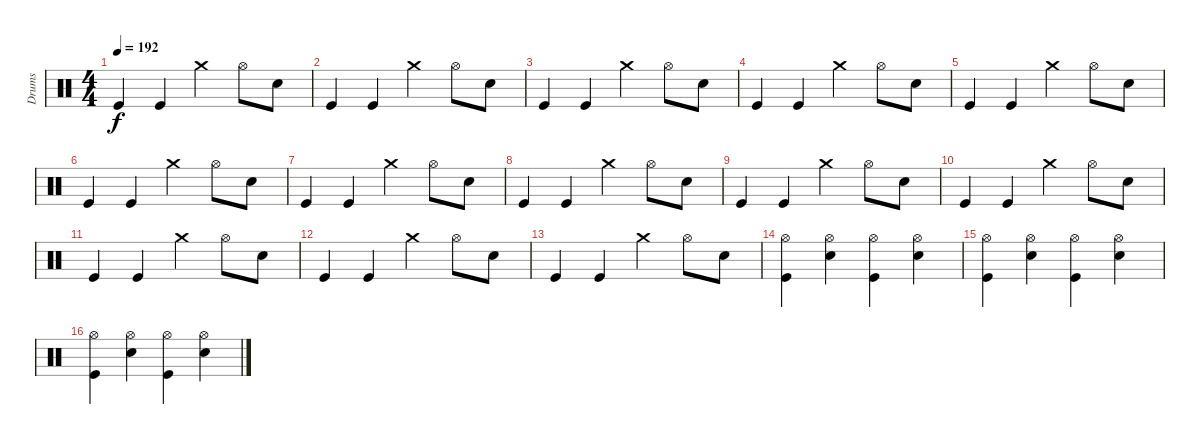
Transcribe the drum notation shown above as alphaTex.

\track ("Drums" "Drums") {instrument percussion}
\staff {score}
\articulation defaults
\ts (4 4)
\tempo 192
\clef neutral
\ks c "Kick (hit)".4{dy f} "Kick (hit)".4 "Crash medium (hit)".4 "Hi-Hat (open)".8 "Snare (hit) 2".8
|
"Kick (hit)".4 "Kick (hit)".4 "Crash medium (hit)".4 "Hi-Hat (open)".8 "Snare (hit) 2".8 |
"Kick (hit)".4 "Kick (hit)".4 "Crash medium (hit)".4 "Hi-Hat (open)".8 "Snare (hit) 2".8 |
"Kick (hit)".4 "Kick (hit)".4 "Crash medium (hit)".4 "Hi-Hat (open)".8 "Snare (hit) 2".8 |
"Kick (hit)".4 "Kick (hit)".4 "Crash medium (hit)".4 "Hi-Hat (open)".8 "Snare (hit) 2".8 |
"Kick (hit)".4 "Kick (hit)".4 "Crash medium (hit)".4 "Hi-Hat (open)".8 "Snare (hit) 2".8 |
"Kick (hit)".4 "Kick (hit)".4 "Crash medium (hit)".4 "Hi-Hat (open)".8 "Snare (hit) 2".8 |
"Kick (hit)".4 "Kick (hit)".4 "Crash medium (hit)".4 "Hi-Hat (open)".8 "Snare (hit) 2".8 |
"Kick (hit)".4 "Kick (hit)".4 "Crash medium (hit)".4 "Hi-Hat (open)".8 "Snare (hit) 2".8 |
"Kick (hit)".4 "Kick (hit)".4 "Crash medium (hit)".4 "Hi-Hat (open)".8 "Snare (hit) 2".8 |
"Kick (hit)".4 "Kick (hit)".4 "Crash medium (hit)".4 "Hi-Hat (open)".8 "Snare (hit) 2".8 |
"Kick (hit)".4 "Kick (hit)".4 "Crash medium (hit)".4 "Hi-Hat (open)".8 "Snare (hit) 2".8 |
"Kick (hit)".4 "Kick (hit)".4 "Crash medium (hit)".4 "Hi-Hat (open)".8 "Snare (hit) 2".8 |
("Kick (hit)" "Hi-Hat (open)").4 ("Snare (hit) 2" "Hi-Hat (open)").4 ("Kick (hit)" "Hi-Hat (open)").4 ("Snare (hit) 2" "Hi-Hat (open)").4 |
("Kick (hit)" "Hi-Hat (open)").4 ("Snare (hit) 2" "Hi-Hat (open)").4 ("Kick (hit)" "Hi-Hat (open)").4 ("Snare (hit) 2" "Hi-Hat (open)").4 |
("Kick (hit)" "Hi-Hat (open)").4 ("Snare (hit) 2" "Hi-Hat (open)").4 ("Kick (hit)" "Hi-Hat (open)").4 ("Snare (hit) 2" "Hi-Hat (open)").4
